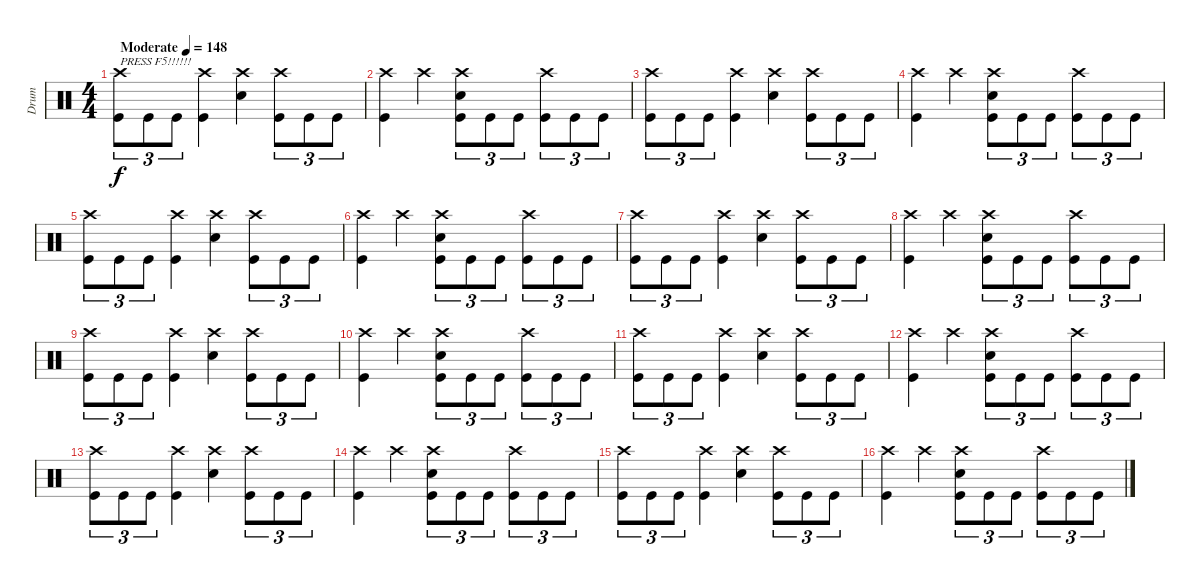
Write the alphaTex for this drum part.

\track ("Drum" "Drum") {instrument percussion}
\staff {score}
\articulation defaults
\ts (4 4)
\tempo (148 "Moderate")
\clef neutral
\ks c
("Crash high (hit)" "Kick (hit)").8{tu (3 2) txt "PRESS F5!!!!!!" dy f} "Kick (hit)".8{tu (3 2)} "Kick (hit)".8{tu (3 2)} ("Crash high (hit)" "Kick (hit)").4 ("Crash high (hit)" "Snare (hit) 2").4 ("Crash high (hit)" "Kick (hit)").8{tu (3 2)} "Kick (hit)".8{tu (3 2)} "Kick (hit)".8{tu (3 2)} |
("Crash high (hit)" "Kick (hit)").4 "Crash high (hit)".4 ("Crash high (hit)" "Snare (hit) 2" "Kick (hit)").8{tu (3 2)} "Kick (hit)".8{tu (3 2)} "Kick (hit)".8{tu (3 2)} ("Crash high (hit)" "Kick (hit)").8{tu (3 2)} "Kick (hit)".8{tu (3 2)} "Kick (hit)".8{tu (3 2)} |
("Crash high (hit)" "Kick (hit)").8{tu (3 2)} "Kick (hit)".8{tu (3 2)} "Kick (hit)".8{tu (3 2)} ("Crash high (hit)" "Kick (hit)").4 ("Crash high (hit)" "Snare (hit) 2").4 ("Crash high (hit)" "Kick (hit)").8{tu (3 2)} "Kick (hit)".8{tu (3 2)} "Kick (hit)".8{tu (3 2)} |
("Crash high (hit)" "Kick (hit)").4 "Crash high (hit)".4 ("Crash high (hit)" "Snare (hit) 2" "Kick (hit)").8{tu (3 2)} "Kick (hit)".8{tu (3 2)} "Kick (hit)".8{tu (3 2)} ("Crash high (hit)" "Kick (hit)").8{tu (3 2)} "Kick (hit)".8{tu (3 2)} "Kick (hit)".8{tu (3 2)} |
("Crash high (hit)" "Kick (hit)").8{tu (3 2)} "Kick (hit)".8{tu (3 2)} "Kick (hit)".8{tu (3 2)} ("Crash high (hit)" "Kick (hit)").4 ("Crash high (hit)" "Snare (hit) 2").4 ("Crash high (hit)" "Kick (hit)").8{tu (3 2)} "Kick (hit)".8{tu (3 2)} "Kick (hit)".8{tu (3 2)} |
("Crash high (hit)" "Kick (hit)").4 "Crash high (hit)".4 ("Crash high (hit)" "Snare (hit) 2" "Kick (hit)").8{tu (3 2)} "Kick (hit)".8{tu (3 2)} "Kick (hit)".8{tu (3 2)} ("Crash high (hit)" "Kick (hit)").8{tu (3 2)} "Kick (hit)".8{tu (3 2)} "Kick (hit)".8{tu (3 2)} |
("Crash high (hit)" "Kick (hit)").8{tu (3 2)} "Kick (hit)".8{tu (3 2)} "Kick (hit)".8{tu (3 2)} ("Crash high (hit)" "Kick (hit)").4 ("Crash high (hit)" "Snare (hit) 2").4 ("Crash high (hit)" "Kick (hit)").8{tu (3 2)} "Kick (hit)".8{tu (3 2)} "Kick (hit)".8{tu (3 2)} |
("Crash high (hit)" "Kick (hit)").4 "Crash high (hit)".4 ("Crash high (hit)" "Snare (hit) 2" "Kick (hit)").8{tu (3 2)} "Kick (hit)".8{tu (3 2)} "Kick (hit)".8{tu (3 2)} ("Crash high (hit)" "Kick (hit)").8{tu (3 2)} "Kick (hit)".8{tu (3 2)} "Kick (hit)".8{tu (3 2)} |
("Crash high (hit)" "Kick (hit)").8{tu (3 2)} "Kick (hit)".8{tu (3 2)} "Kick (hit)".8{tu (3 2)} ("Crash high (hit)" "Kick (hit)").4 ("Crash high (hit)" "Snare (hit) 2").4 ("Crash high (hit)" "Kick (hit)").8{tu (3 2)} "Kick (hit)".8{tu (3 2)} "Kick (hit)".8{tu (3 2)} |
("Crash high (hit)" "Kick (hit)").4 "Crash high (hit)".4 ("Crash high (hit)" "Snare (hit) 2" "Kick (hit)").8{tu (3 2)} "Kick (hit)".8{tu (3 2)} "Kick (hit)".8{tu (3 2)} ("Crash high (hit)" "Kick (hit)").8{tu (3 2)} "Kick (hit)".8{tu (3 2)} "Kick (hit)".8{tu (3 2)} |
("Crash high (hit)" "Kick (hit)").8{tu (3 2)} "Kick (hit)".8{tu (3 2)} "Kick (hit)".8{tu (3 2)} ("Crash high (hit)" "Kick (hit)").4 ("Crash high (hit)" "Snare (hit) 2").4 ("Crash high (hit)" "Kick (hit)").8{tu (3 2)} "Kick (hit)".8{tu (3 2)} "Kick (hit)".8{tu (3 2)} |
("Crash high (hit)" "Kick (hit)").4 "Crash high (hit)".4 ("Crash high (hit)" "Snare (hit) 2" "Kick (hit)").8{tu (3 2)} "Kick (hit)".8{tu (3 2)} "Kick (hit)".8{tu (3 2)} ("Crash high (hit)" "Kick (hit)").8{tu (3 2)} "Kick (hit)".8{tu (3 2)} "Kick (hit)".8{tu (3 2)} |
("Crash high (hit)" "Kick (hit)").8{tu (3 2)} "Kick (hit)".8{tu (3 2)} "Kick (hit)".8{tu (3 2)} ("Crash high (hit)" "Kick (hit)").4 ("Crash high (hit)" "Snare (hit) 2").4 ("Crash high (hit)" "Kick (hit)").8{tu (3 2)} "Kick (hit)".8{tu (3 2)} "Kick (hit)".8{tu (3 2)} |
("Crash high (hit)" "Kick (hit)").4 "Crash high (hit)".4 ("Crash high (hit)" "Snare (hit) 2" "Kick (hit)").8{tu (3 2)} "Kick (hit)".8{tu (3 2)} "Kick (hit)".8{tu (3 2)} ("Crash high (hit)" "Kick (hit)").8{tu (3 2)} "Kick (hit)".8{tu (3 2)} "Kick (hit)".8{tu (3 2)} |
("Crash high (hit)" "Kick (hit)").8{tu (3 2)} "Kick (hit)".8{tu (3 2)} "Kick (hit)".8{tu (3 2)} ("Crash high (hit)" "Kick (hit)").4 ("Crash high (hit)" "Snare (hit) 2").4 ("Crash high (hit)" "Kick (hit)").8{tu (3 2)} "Kick (hit)".8{tu (3 2)} "Kick (hit)".8{tu (3 2)} |
("Crash high (hit)" "Kick (hit)").4 "Crash high (hit)".4 ("Crash high (hit)" "Snare (hit) 2" "Kick (hit)").8{tu (3 2)} "Kick (hit)".8{tu (3 2)} "Kick (hit)".8{tu (3 2)} ("Crash high (hit)" "Kick (hit)").8{tu (3 2)} "Kick (hit)".8{tu (3 2)} "Kick (hit)".8{tu (3 2)}
